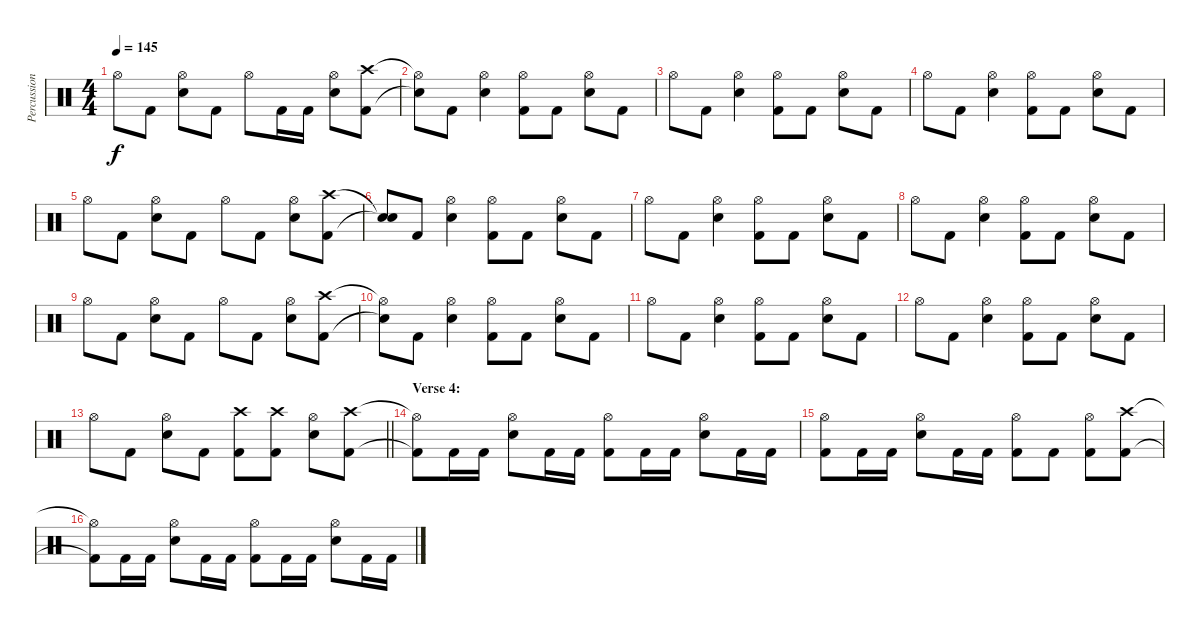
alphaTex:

\track ("Percussion" "Percussion") {instrument percussion}
\staff {score}
\articulation defaults
\ts (4 4)
\tempo 145
\clef neutral
\ks c "Hi-Hat (open)".8{dy f} "Kick (hit) 2".8
("Hi-Hat (open)" "Electric Snare (hit)").8 "Kick (hit) 2".8 "Hi-Hat (open)".8 "Kick (hit) 2".16 "Kick (hit) 2".16 ("Hi-Hat (open)" "Electric Snare (hit)").8 ("Crash high (hit)" "Kick (hit) 2").8 |
("Hi-Hat (open)"{t} "Snare (hit)"{t}).8 "Kick (hit) 2".8 ("Hi-Hat (open)" "Electric Snare (hit)").4 ("Hi-Hat (open)" "Kick (hit) 2").8 "Kick (hit) 2".8 ("Hi-Hat (open)" "Electric Snare (hit)").8 "Kick (hit) 2".8 |
"Hi-Hat (open)".8 "Kick (hit) 2".8 ("Hi-Hat (open)" "Electric Snare (hit)").4 ("Hi-Hat (open)" "Kick (hit) 2").8 "Kick (hit) 2".8 ("Hi-Hat (open)" "Electric Snare (hit)").8 "Kick (hit) 2".8 |
"Hi-Hat (open)".8 "Kick (hit) 2".8 ("Hi-Hat (open)" "Electric Snare (hit)").4 ("Hi-Hat (open)" "Kick (hit) 2").8 "Kick (hit) 2".8 ("Hi-Hat (open)" "Electric Snare (hit)").8 "Kick (hit) 2".8 |
"Hi-Hat (open)".8 "Kick (hit) 2".8 ("Hi-Hat (open)" "Electric Snare (hit)").8 "Kick (hit) 2".8 "Hi-Hat (open)".8 "Kick (hit) 2".8 ("Hi-Hat (open)" "Electric Snare (hit)").8 ("Crash high (hit)" "Kick (hit) 2").8 |
("Snare (hit)"{t} "Snare (hit)"{t}).8 "Kick (hit) 2".8 ("Hi-Hat (open)" "Electric Snare (hit)").4 ("Hi-Hat (open)" "Kick (hit) 2").8 "Kick (hit) 2".8 ("Hi-Hat (open)" "Electric Snare (hit)").8 "Kick (hit) 2".8 |
"Hi-Hat (open)".8 "Kick (hit) 2".8 ("Hi-Hat (open)" "Electric Snare (hit)").4 ("Hi-Hat (open)" "Kick (hit) 2").8 "Kick (hit) 2".8 ("Hi-Hat (open)" "Electric Snare (hit)").8 "Kick (hit) 2".8 |
"Hi-Hat (open)".8 "Kick (hit) 2".8 ("Hi-Hat (open)" "Electric Snare (hit)").4 ("Hi-Hat (open)" "Kick (hit) 2").8 "Kick (hit) 2".8 ("Hi-Hat (open)" "Electric Snare (hit)").8 "Kick (hit) 2".8 |
"Hi-Hat (open)".8 "Kick (hit) 2".8 ("Hi-Hat (open)" "Electric Snare (hit)").8 "Kick (hit) 2".8 "Hi-Hat (open)".8 "Kick (hit) 2".8 ("Hi-Hat (open)" "Electric Snare (hit)").8 ("Crash high (hit)" "Kick (hit) 2").8 |
("Hi-Hat (open)"{t} "Snare (hit)"{t}).8 "Kick (hit) 2".8 ("Hi-Hat (open)" "Electric Snare (hit)").4 ("Hi-Hat (open)" "Kick (hit) 2").8 "Kick (hit) 2".8 ("Hi-Hat (open)" "Electric Snare (hit)").8 "Kick (hit) 2".8 |
"Hi-Hat (open)".8 "Kick (hit) 2".8 ("Hi-Hat (open)" "Electric Snare (hit)").4 ("Hi-Hat (open)" "Kick (hit) 2").8 "Kick (hit) 2".8 ("Hi-Hat (open)" "Electric Snare (hit)").8 "Kick (hit) 2".8 |
"Hi-Hat (open)".8 "Kick (hit) 2".8 ("Hi-Hat (open)" "Electric Snare (hit)").4 ("Hi-Hat (open)" "Kick (hit) 2").8 "Kick (hit) 2".8 ("Hi-Hat (open)" "Electric Snare (hit)").8 "Kick (hit) 2".8 |
\barLineRight lightlight "Hi-Hat (open)".8 "Kick (hit) 2".8
("Hi-Hat (open)" "Electric Snare (hit)").8 "Kick (hit) 2".8 ("Crash high (hit)" "Kick (hit) 2").8 ("Crash high (hit)" "Kick (hit) 2").8 ("Hi-Hat (open)" "Electric Snare (hit)").8 ("Crash high (hit)" "Kick (hit) 2").8 |
\section ("" "Verse 4:")
("Hi-Hat (open)"{t} "Kick (hit) 2"{t}).8 "Kick (hit) 2".16 "Kick (hit) 2".16 ("Hi-Hat (open)" "Electric Snare (hit)").8 "Kick (hit) 2".16 "Kick (hit) 2".16 ("Hi-Hat (open)" "Kick (hit) 2").8 "Kick (hit) 2".16 "Kick (hit) 2".16 ("Hi-Hat (open)" "Electric Snare (hit)").8 "Kick (hit) 2".16 "Kick (hit) 2".16 |
("Hi-Hat (open)" "Kick (hit) 2").8 "Kick (hit) 2".16 "Kick (hit) 2".16 ("Hi-Hat (open)" "Electric Snare (hit)").8 "Kick (hit) 2".16 "Kick (hit) 2".16 ("Hi-Hat (open)" "Kick (hit) 2").8 "Kick (hit) 2".8 ("Hi-Hat (open)" "Kick (hit) 2").8 ("Crash high (hit)" "Kick (hit) 2").8 |
("Hi-Hat (open)"{t} "Kick (hit) 2"{t}).8 "Kick (hit) 2".16 "Kick (hit) 2".16 ("Hi-Hat (open)" "Electric Snare (hit)").8 "Kick (hit) 2".16 "Kick (hit) 2".16 ("Hi-Hat (open)" "Kick (hit) 2").8 "Kick (hit) 2".16 "Kick (hit) 2".16 ("Hi-Hat (open)" "Electric Snare (hit)").8 "Kick (hit) 2".16 "Kick (hit) 2".16
